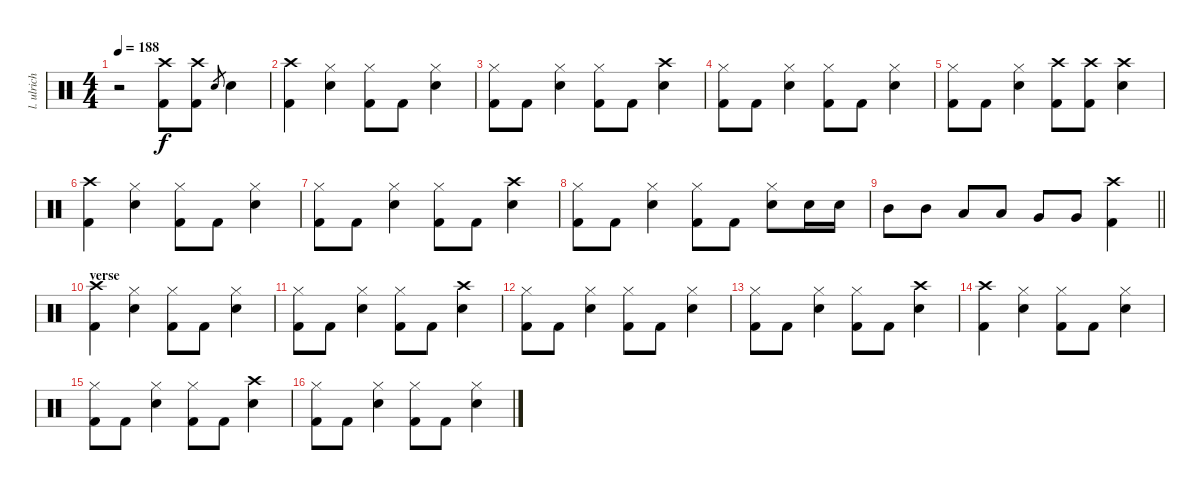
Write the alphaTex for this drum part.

\track ("l. ulrich - drums" "l. ulrich ") {instrument percussion}
\staff {score}
\articulation defaults
\ts (4 4)
\tempo 188
\clef neutral
\ks c
r.2{dy f} ("Crash high (hit)" "Kick (hit) 2").8 ("Crash high (hit)" "Kick (hit) 2").8 "Snare (hit) 2".8{gr} "Snare (hit) 2".4 |
("Crash high (hit)" "Kick (hit) 2").4 ("Hi-Hat (closed)" "Snare (hit) 2").4 ("Hi-Hat (closed)" "Kick (hit) 2").8 "Kick (hit) 2".8 ("Hi-Hat (closed)" "Snare (hit) 2").4 |
("Hi-Hat (closed)" "Kick (hit) 2").8 "Kick (hit) 2".8 ("Hi-Hat (closed)" "Snare (hit) 2").4 ("Hi-Hat (closed)" "Kick (hit) 2").8 "Kick (hit) 2".8 ("Crash high (hit)" "Snare (hit) 2").4 |
("Hi-Hat (closed)" "Kick (hit) 2").8 "Kick (hit) 2".8 ("Hi-Hat (closed)" "Snare (hit) 2").4 ("Hi-Hat (closed)" "Kick (hit) 2").8 "Kick (hit) 2".8 ("Hi-Hat (closed)" "Snare (hit) 2").4 |
("Hi-Hat (closed)" "Kick (hit) 2").8 "Kick (hit) 2".8 ("Hi-Hat (closed)" "Snare (hit) 2").4 ("Crash high (hit)" "Kick (hit) 2").8 ("Crash high (hit)" "Kick (hit) 2").8 ("Crash high (hit)" "Snare (hit) 2").4 |
("Crash high (hit)" "Kick (hit) 2").4 ("Hi-Hat (closed)" "Snare (hit) 2").4 ("Hi-Hat (closed)" "Kick (hit) 2").8 "Kick (hit) 2".8 ("Hi-Hat (closed)" "Snare (hit) 2").4 |
("Hi-Hat (closed)" "Kick (hit) 2").8 "Kick (hit) 2".8 ("Hi-Hat (closed)" "Snare (hit) 2").4 ("Hi-Hat (closed)" "Kick (hit) 2").8 "Kick (hit) 2".8 ("Crash high (hit)" "Snare (hit) 2").4 |
("Hi-Hat (closed)" "Kick (hit) 2").8 "Kick (hit) 2".8 ("Hi-Hat (closed)" "Snare (hit) 2").4 ("Hi-Hat (closed)" "Kick (hit) 2").8 "Kick (hit) 2".8 ("Hi-Hat (closed)" "Snare (hit) 2").8 "Snare (hit) 2".16 "Snare (hit) 2".16 |
\barLineRight lightlight "Mid Tom (hit)".8 "Mid Tom (hit)".8 "Low Tom (hit)".8 "Low Tom (hit)".8 "Very Low Tom (hit)".8 "Very Low Tom (hit)".8
("Crash high (hit)" "Kick (hit) 2").4 |
\section ("" "verse")
("Crash high (hit)" "Kick (hit) 2").4 ("Hi-Hat (closed)" "Snare (hit) 2").4 ("Hi-Hat (closed)" "Kick (hit) 2").8 "Kick (hit) 2".8 ("Hi-Hat (closed)" "Snare (hit) 2").4 |
("Hi-Hat (closed)" "Kick (hit) 2").8 "Kick (hit) 2".8 ("Hi-Hat (closed)" "Snare (hit) 2").4 ("Hi-Hat (closed)" "Kick (hit) 2").8 "Kick (hit) 2".8 ("Crash high (hit)" "Snare (hit) 2").4 |
("Hi-Hat (closed)" "Kick (hit) 2").8 "Kick (hit) 2".8 ("Hi-Hat (closed)" "Snare (hit) 2").4 ("Hi-Hat (closed)" "Kick (hit) 2").8 "Kick (hit) 2".8 ("Hi-Hat (closed)" "Snare (hit) 2").4 |
("Hi-Hat (closed)" "Kick (hit) 2").8 "Kick (hit) 2".8 ("Hi-Hat (closed)" "Snare (hit) 2").4 ("Hi-Hat (closed)" "Kick (hit) 2").8 "Kick (hit) 2".8 ("Crash high (hit)" "Snare (hit) 2").4 |
("Crash high (hit)" "Kick (hit) 2").4 ("Hi-Hat (closed)" "Snare (hit) 2").4 ("Hi-Hat (closed)" "Kick (hit) 2").8 "Kick (hit) 2".8 ("Hi-Hat (closed)" "Snare (hit) 2").4 |
("Hi-Hat (closed)" "Kick (hit) 2").8 "Kick (hit) 2".8 ("Hi-Hat (closed)" "Snare (hit) 2").4 ("Hi-Hat (closed)" "Kick (hit) 2").8 "Kick (hit) 2".8 ("Crash high (hit)" "Snare (hit) 2").4 |
("Hi-Hat (closed)" "Kick (hit) 2").8 "Kick (hit) 2".8 ("Hi-Hat (closed)" "Snare (hit) 2").4 ("Hi-Hat (closed)" "Kick (hit) 2").8 "Kick (hit) 2".8 ("Hi-Hat (closed)" "Snare (hit) 2").4
